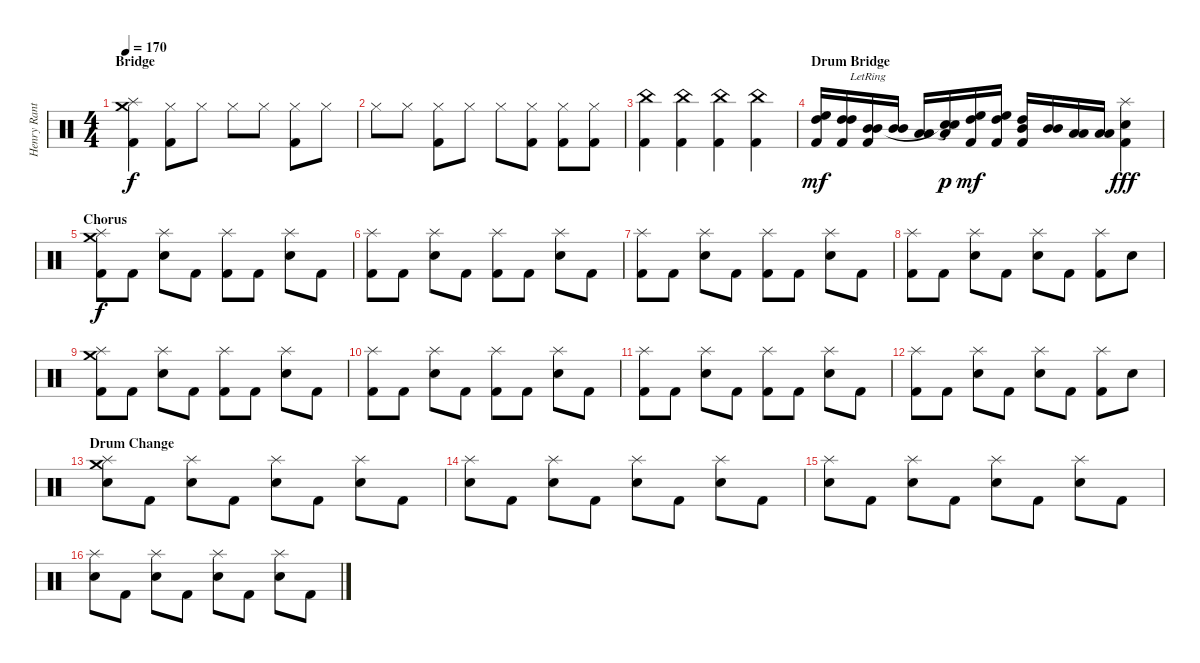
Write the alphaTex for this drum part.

\track ("Henry Ranta -Drums-" "Henry Rant") {instrument percussion}
\staff {score}
\articulation defaults
\ts (4 4)
\section ("" "Bridge")
\tempo 170
\clef neutral
\ks c
("Splash (hit)" "Crash medium (hit)" "Kick (hit) 2").4{dy f} ("Hi-Hat (closed)" "Kick (hit) 2").8 "Hi-Hat (closed)".8 "Hi-Hat (closed)".8 "Hi-Hat (closed)".8 ("Hi-Hat (closed)" "Kick (hit) 2").8 "Hi-Hat (closed)".8 |
"Hi-Hat (closed)".8 "Hi-Hat (closed)".8 ("Hi-Hat (closed)" "Kick (hit) 2").8 "Hi-Hat (closed)".8 "Hi-Hat (closed)".8 ("Hi-Hat (closed)" "Kick (hit) 2").8 ("Hi-Hat (closed)" "Kick (hit) 2").8 ("Hi-Hat (closed)" "Kick (hit) 2").8 |
("China (hit)" "Kick (hit) 2").4 ("China (hit)" "Kick (hit) 2").4 ("China (hit)" "Kick (hit) 2").4 ("China (hit)" "Kick (hit) 2").4 |
\section ("" "Drum Bridge")
("Kick (hit) 2" "High Floor Tom (hit)" "High Tom (hit)").16{dy mf} ("Kick (hit) 2" "High Tom (hit)" "High Tom (hit)").16 ("Kick (hit) 2"{lr} "Mid Tom (hit)" "Mid Tom (hit)").16 ("Mid Tom (hit)" "Mid Tom (hit)").16 ("Low Tom (hit)" "Low Tom (hit)").16 ("Low Tom (hit)" "Snare (hit)"{t} "Snare (hit)"{t}).16{dy p} ("Kick (hit) 2" "High Floor Tom (hit)" "High Tom (hit)").16{dy mf} ("Kick (hit) 2" "High Floor Tom (hit)" "High Tom (hit)").16 ("Kick (hit) 2" "High Tom (hit)" "Mid Tom (hit)").16 ("Mid Tom (hit)" "Mid Tom (hit)").16 ("Low Tom (hit)" "Low Tom (hit)").16 ("Low Tom (hit)" "Low Floor Tom (hit)").16 ("Splash (hit)" "Snare (hit) 2" "Kick (hit) 2").4{dy fff} |
\section ("" "Chorus")
("Splash (hit)" "Crash medium (hit)" "Kick (hit) 2").8{dy f} "Kick (hit) 2".8 ("Splash (hit)" "Snare (hit) 2").8 "Kick (hit) 2".8 ("Splash (hit)" "Kick (hit) 2").8 "Kick (hit) 2".8 ("Splash (hit)" "Snare (hit) 2").8 "Kick (hit) 2".8 |
("Splash (hit)" "Kick (hit) 2").8 "Kick (hit) 2".8 ("Splash (hit)" "Snare (hit) 2").8 "Kick (hit) 2".8 ("Splash (hit)" "Kick (hit) 2").8 "Kick (hit) 2".8 ("Splash (hit)" "Snare (hit) 2").8 "Kick (hit) 2".8 |
("Splash (hit)" "Kick (hit) 2").8 "Kick (hit) 2".8 ("Splash (hit)" "Snare (hit) 2").8 "Kick (hit) 2".8 ("Splash (hit)" "Kick (hit) 2").8 "Kick (hit) 2".8 ("Splash (hit)" "Snare (hit) 2").8 "Kick (hit) 2".8 |
("Splash (hit)" "Kick (hit) 2").8 "Kick (hit) 2".8 ("Splash (hit)" "Snare (hit) 2").8 "Kick (hit) 2".8 ("Splash (hit)" "Snare (hit) 2").8 "Kick (hit) 2".8 ("Splash (hit)" "Kick (hit) 2").8 "Snare (hit) 2".8 |
("Splash (hit)" "Crash medium (hit)" "Kick (hit) 2").8 "Kick (hit) 2".8 ("Splash (hit)" "Snare (hit) 2").8 "Kick (hit) 2".8 ("Splash (hit)" "Kick (hit) 2").8 "Kick (hit) 2".8 ("Splash (hit)" "Snare (hit) 2").8 "Kick (hit) 2".8 |
("Splash (hit)" "Kick (hit) 2").8 "Kick (hit) 2".8 ("Splash (hit)" "Snare (hit) 2").8 "Kick (hit) 2".8 ("Splash (hit)" "Kick (hit) 2").8 "Kick (hit) 2".8 ("Splash (hit)" "Snare (hit) 2").8 "Kick (hit) 2".8 |
("Splash (hit)" "Kick (hit) 2").8 "Kick (hit) 2".8 ("Splash (hit)" "Snare (hit) 2").8 "Kick (hit) 2".8 ("Splash (hit)" "Kick (hit) 2").8 "Kick (hit) 2".8 ("Splash (hit)" "Snare (hit) 2").8 "Kick (hit) 2".8 |
("Splash (hit)" "Kick (hit) 2").8 "Kick (hit) 2".8 ("Splash (hit)" "Snare (hit) 2").8 "Kick (hit) 2".8 ("Splash (hit)" "Snare (hit) 2").8 "Kick (hit) 2".8 ("Splash (hit)" "Kick (hit) 2").8 "Snare (hit) 2".8 |
\section ("" "Drum Change")
("Splash (hit)" "Crash medium (hit)" "Snare (hit) 2").8 "Kick (hit) 2".8 ("Splash (hit)" "Snare (hit) 2").8 "Kick (hit) 2".8 ("Splash (hit)" "Snare (hit) 2").8 "Kick (hit) 2".8 ("Splash (hit)" "Snare (hit) 2").8 "Kick (hit) 2".8 |
("Splash (hit)" "Snare (hit) 2").8 "Kick (hit) 2".8 ("Splash (hit)" "Snare (hit) 2").8 "Kick (hit) 2".8 ("Splash (hit)" "Snare (hit) 2").8 "Kick (hit) 2".8 ("Splash (hit)" "Snare (hit) 2").8 "Kick (hit) 2".8 |
("Splash (hit)" "Snare (hit) 2").8 "Kick (hit) 2".8 ("Splash (hit)" "Snare (hit) 2").8 "Kick (hit) 2".8 ("Splash (hit)" "Snare (hit) 2").8 "Kick (hit) 2".8 ("Splash (hit)" "Snare (hit) 2").8 "Kick (hit) 2".8 |
("Splash (hit)" "Snare (hit) 2").8 "Kick (hit) 2".8 ("Splash (hit)" "Snare (hit) 2").8 "Kick (hit) 2".8 ("Splash (hit)" "Snare (hit) 2").8 "Kick (hit) 2".8 ("Splash (hit)" "Snare (hit) 2").8 "Kick (hit) 2".8
